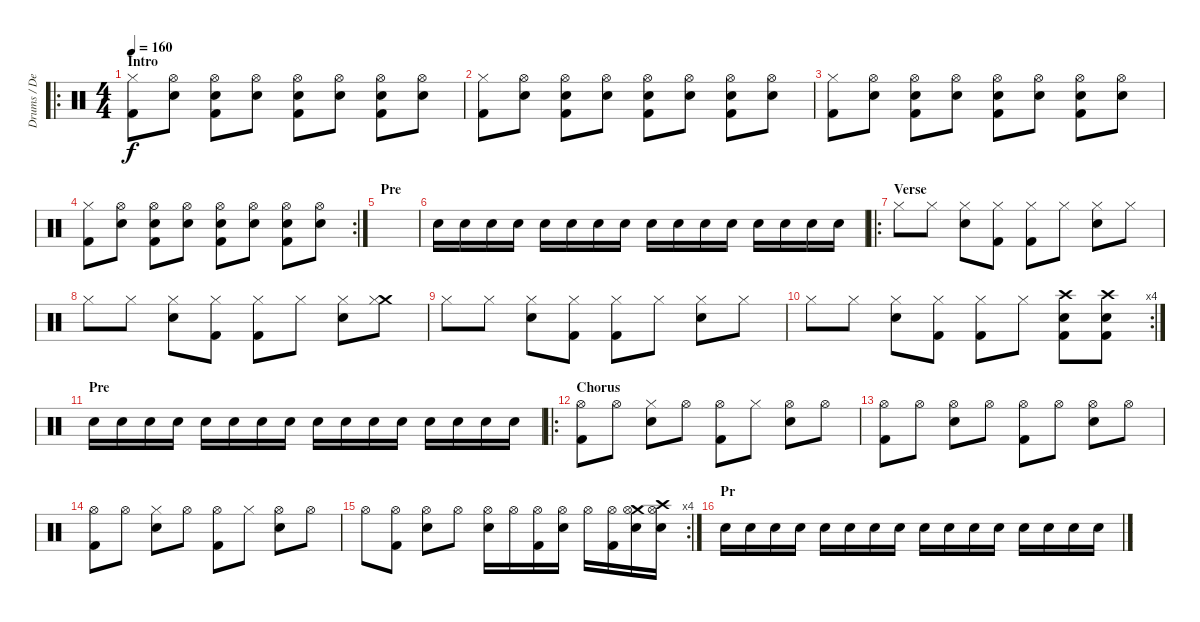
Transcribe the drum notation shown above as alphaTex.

\track ("Drums / Dennis" "Drums / De") {instrument percussion}
\staff {score}
\articulation defaults
\ro
\ts (4 4)
\section ("" "Intro")
\tempo 160
\clef neutral
\ks c
("Kick (hit) 2" "Hi-Hat (closed)").8{dy f} ("Snare (hit) 2" "Hi-Hat (open)").8 ("Snare (hit) 2" "Kick (hit) 2" "Hi-Hat (open)").8 ("Snare (hit) 2" "Hi-Hat (open)").8 ("Snare (hit) 2" "Kick (hit) 2" "Hi-Hat (open)").8 ("Snare (hit) 2" "Hi-Hat (open)").8 ("Snare (hit) 2" "Kick (hit) 2" "Hi-Hat (open)").8 ("Snare (hit) 2" "Hi-Hat (open)").8 |
("Kick (hit) 2" "Hi-Hat (closed)").8 ("Snare (hit) 2" "Hi-Hat (open)").8 ("Snare (hit) 2" "Kick (hit) 2" "Hi-Hat (open)").8 ("Snare (hit) 2" "Hi-Hat (open)").8 ("Snare (hit) 2" "Kick (hit) 2" "Hi-Hat (open)").8 ("Snare (hit) 2" "Hi-Hat (open)").8 ("Snare (hit) 2" "Kick (hit) 2" "Hi-Hat (open)").8 ("Snare (hit) 2" "Hi-Hat (open)").8 |
("Kick (hit) 2" "Hi-Hat (closed)").8 ("Snare (hit) 2" "Hi-Hat (open)").8 ("Snare (hit) 2" "Kick (hit) 2" "Hi-Hat (open)").8 ("Snare (hit) 2" "Hi-Hat (open)").8 ("Snare (hit) 2" "Kick (hit) 2" "Hi-Hat (open)").8 ("Snare (hit) 2" "Hi-Hat (open)").8 ("Snare (hit) 2" "Kick (hit) 2" "Hi-Hat (open)").8 ("Snare (hit) 2" "Hi-Hat (open)").8 |
\rc 2
("Kick (hit) 2" "Hi-Hat (closed)").8 ("Snare (hit) 2" "Hi-Hat (open)").8 ("Snare (hit) 2" "Kick (hit) 2" "Hi-Hat (open)").8 ("Snare (hit) 2" "Hi-Hat (open)").8 ("Snare (hit) 2" "Kick (hit) 2" "Hi-Hat (open)").8 ("Snare (hit) 2" "Hi-Hat (open)").8 ("Snare (hit) 2" "Kick (hit) 2" "Hi-Hat (open)").8 ("Snare (hit) 2" "Hi-Hat (open)").8 |
\section ("" "Pre")
|
"Snare (hit) 2".16 "Snare (hit) 2".16 "Snare (hit) 2".16 "Snare (hit) 2".16 "Snare (hit) 2".16 "Snare (hit) 2".16 "Snare (hit) 2".16 "Snare (hit) 2".16 "Snare (hit) 2".16 "Snare (hit) 2".16 "Snare (hit) 2".16 "Snare (hit) 2".16 "Snare (hit) 2".16 "Snare (hit) 2".16 "Snare (hit) 2".16 "Snare (hit) 2".16 |
\ro
\section ("" "Verse")
"Hi-Hat (closed)".8 "Hi-Hat (closed)".8 ("Snare (hit) 2" "Hi-Hat (closed)").8 ("Kick (hit) 2" "Hi-Hat (closed)").8 ("Kick (hit) 2" "Hi-Hat (closed)").8 "Hi-Hat (closed)".8 ("Snare (hit) 2" "Hi-Hat (closed)").8 "Hi-Hat (closed)".8 |
"Hi-Hat (closed)".8 "Hi-Hat (closed)".8 ("Snare (hit) 2" "Hi-Hat (closed)").8 ("Kick (hit) 2" "Hi-Hat (closed)").8 ("Kick (hit) 2" "Hi-Hat (closed)").8 "Hi-Hat (closed)".8 ("Snare (hit) 2" "Hi-Hat (closed)").8 ("Crash medium (hit)" "Hi-Hat (closed)").8 |
"Hi-Hat (closed)".8 "Hi-Hat (closed)".8 ("Snare (hit) 2" "Hi-Hat (closed)").8 ("Kick (hit) 2" "Hi-Hat (closed)").8 ("Kick (hit) 2" "Hi-Hat (closed)").8 "Hi-Hat (closed)".8 ("Snare (hit) 2" "Hi-Hat (closed)").8 "Hi-Hat (closed)".8 |
\rc 4 "Hi-Hat (closed)".8 "Hi-Hat (closed)".8
("Snare (hit) 2" "Hi-Hat (closed)").8 ("Kick (hit) 2" "Hi-Hat (closed)").8 ("Kick (hit) 2" "Hi-Hat (closed)").8 "Hi-Hat (closed)".8 ("Crash high (hit)" "Snare (hit) 2" "Kick (hit) 2").8 ("Crash high (hit)" "Snare (hit) 2" "Kick (hit) 2").8 |
\section ("" "Pre")
"Snare (hit) 2".16 "Snare (hit) 2".16 "Snare (hit) 2".16 "Snare (hit) 2".16 "Snare (hit) 2".16 "Snare (hit) 2".16 "Snare (hit) 2".16 "Snare (hit) 2".16 "Snare (hit) 2".16 "Snare (hit) 2".16 "Snare (hit) 2".16 "Snare (hit) 2".16 "Snare (hit) 2".16 "Snare (hit) 2".16 "Snare (hit) 2".16 "Snare (hit) 2".16 |
\ro
\section ("" "Chorus")
("Kick (hit) 2" "Hi-Hat (open)").8 "Hi-Hat (open)".8 ("Snare (hit) 2" "Hi-Hat (closed)").8 "Hi-Hat (open)".8 ("Kick (hit) 2" "Hi-Hat (open)").8 "Hi-Hat (closed)".8 ("Snare (hit) 2" "Hi-Hat (open)").8 "Hi-Hat (open)".8 |
("Kick (hit) 2" "Hi-Hat (open)").8 "Hi-Hat (open)".8 ("Snare (hit) 2" "Hi-Hat (open)").8 "Hi-Hat (open)".8 ("Kick (hit) 2" "Hi-Hat (open)").8 "Hi-Hat (open)".8 ("Snare (hit) 2" "Hi-Hat (open)").8 "Hi-Hat (open)".8 |
("Kick (hit) 2" "Hi-Hat (open)").8 "Hi-Hat (open)".8 ("Snare (hit) 2" "Hi-Hat (closed)").8 "Hi-Hat (open)".8 ("Kick (hit) 2" "Hi-Hat (open)").8 "Hi-Hat (closed)".8 ("Snare (hit) 2" "Hi-Hat (open)").8 "Hi-Hat (open)".8 |
\rc 4 "Hi-Hat (open)".8
("Kick (hit) 2" "Hi-Hat (open)").8 ("Snare (hit) 2" "Hi-Hat (open)").8 "Hi-Hat (open)".8 ("Snare (hit) 2" "Hi-Hat (open)").16 "Hi-Hat (open)".16 ("Kick (hit) 2" "Hi-Hat (open)").16 ("Snare (hit) 2" "Hi-Hat (open)").16 "Hi-Hat (open)".16 ("Kick (hit) 2" "Hi-Hat (open)").16 ("Crash medium (hit)" "Snare (hit) 2" "Hi-Hat (open)").16 ("Crash high (hit)" "Snare (hit) 2" "Hi-Hat (open)").16 |
\section ("" "Pr")
"Snare (hit) 2".16 "Snare (hit) 2".16 "Snare (hit) 2".16 "Snare (hit) 2".16 "Snare (hit) 2".16 "Snare (hit) 2".16 "Snare (hit) 2".16 "Snare (hit) 2".16 "Snare (hit) 2".16 "Snare (hit) 2".16 "Snare (hit) 2".16 "Snare (hit) 2".16 "Snare (hit) 2".16 "Snare (hit) 2".16 "Snare (hit) 2".16 "Snare (hit) 2".16
